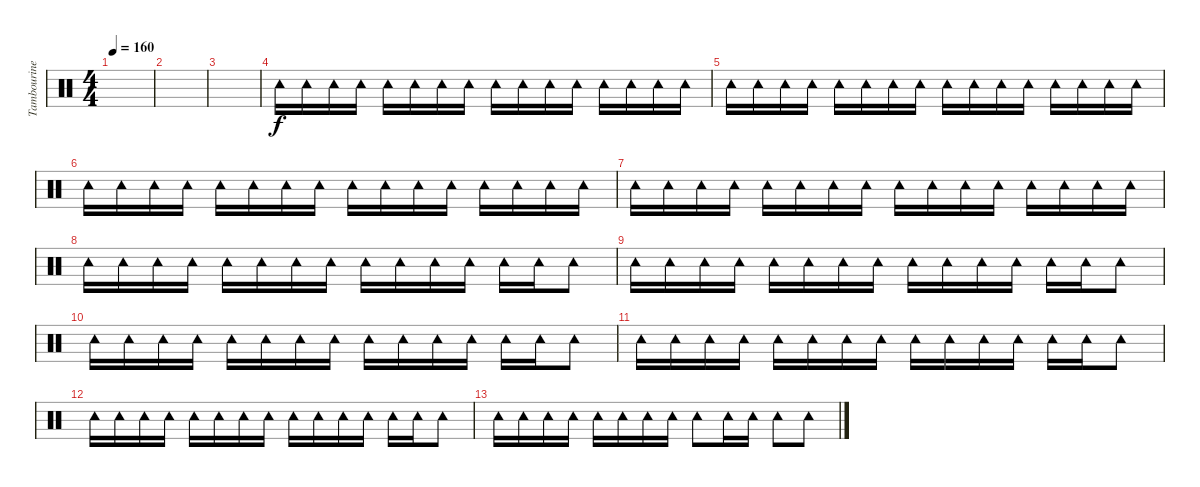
\track ("Tambourine" "Tambourine") {instrument percussion}
\staff {score}
\articulation defaults
\ts (4 4)
\tempo 160
\clef neutral
\ks c
|
|
|
"Tambourine (hit)".16 "Tambourine (hit)".16 "Tambourine (hit)".16 "Tambourine (hit)".16 "Tambourine (hit)".16 "Tambourine (hit)".16 "Tambourine (hit)".16 "Tambourine (hit)".16 "Tambourine (hit)".16 "Tambourine (hit)".16 "Tambourine (hit)".16 "Tambourine (hit)".16 "Tambourine (hit)".16 "Tambourine (hit)".16 "Tambourine (hit)".16 "Tambourine (hit)".16 |
"Tambourine (hit)".16 "Tambourine (hit)".16 "Tambourine (hit)".16 "Tambourine (hit)".16 "Tambourine (hit)".16 "Tambourine (hit)".16 "Tambourine (hit)".16 "Tambourine (hit)".16 "Tambourine (hit)".16 "Tambourine (hit)".16 "Tambourine (hit)".16 "Tambourine (hit)".16 "Tambourine (hit)".16 "Tambourine (hit)".16 "Tambourine (hit)".16 "Tambourine (hit)".16 |
"Tambourine (hit)".16 "Tambourine (hit)".16 "Tambourine (hit)".16 "Tambourine (hit)".16 "Tambourine (hit)".16 "Tambourine (hit)".16 "Tambourine (hit)".16 "Tambourine (hit)".16 "Tambourine (hit)".16 "Tambourine (hit)".16 "Tambourine (hit)".16 "Tambourine (hit)".16 "Tambourine (hit)".16 "Tambourine (hit)".16 "Tambourine (hit)".16 "Tambourine (hit)".16 |
"Tambourine (hit)".16 "Tambourine (hit)".16 "Tambourine (hit)".16 "Tambourine (hit)".16 "Tambourine (hit)".16 "Tambourine (hit)".16 "Tambourine (hit)".16 "Tambourine (hit)".16 "Tambourine (hit)".16 "Tambourine (hit)".16 "Tambourine (hit)".16 "Tambourine (hit)".16 "Tambourine (hit)".16 "Tambourine (hit)".16 "Tambourine (hit)".16 "Tambourine (hit)".16 |
"Tambourine (hit)".16 "Tambourine (hit)".16 "Tambourine (hit)".16 "Tambourine (hit)".16 "Tambourine (hit)".16 "Tambourine (hit)".16 "Tambourine (hit)".16 "Tambourine (hit)".16 "Tambourine (hit)".16 "Tambourine (hit)".16 "Tambourine (hit)".16 "Tambourine (hit)".16 "Tambourine (hit)".16 "Tambourine (hit)".16 "Tambourine (hit)".8 |
"Tambourine (hit)".16 "Tambourine (hit)".16 "Tambourine (hit)".16 "Tambourine (hit)".16 "Tambourine (hit)".16 "Tambourine (hit)".16 "Tambourine (hit)".16 "Tambourine (hit)".16 "Tambourine (hit)".16 "Tambourine (hit)".16 "Tambourine (hit)".16 "Tambourine (hit)".16 "Tambourine (hit)".16 "Tambourine (hit)".16 "Tambourine (hit)".8 |
"Tambourine (hit)".16 "Tambourine (hit)".16 "Tambourine (hit)".16 "Tambourine (hit)".16 "Tambourine (hit)".16 "Tambourine (hit)".16 "Tambourine (hit)".16 "Tambourine (hit)".16 "Tambourine (hit)".16 "Tambourine (hit)".16 "Tambourine (hit)".16 "Tambourine (hit)".16 "Tambourine (hit)".16 "Tambourine (hit)".16 "Tambourine (hit)".8 |
"Tambourine (hit)".16 "Tambourine (hit)".16 "Tambourine (hit)".16 "Tambourine (hit)".16 "Tambourine (hit)".16 "Tambourine (hit)".16 "Tambourine (hit)".16 "Tambourine (hit)".16 "Tambourine (hit)".16 "Tambourine (hit)".16 "Tambourine (hit)".16 "Tambourine (hit)".16 "Tambourine (hit)".16 "Tambourine (hit)".16 "Tambourine (hit)".8 |
"Tambourine (hit)".16 "Tambourine (hit)".16 "Tambourine (hit)".16 "Tambourine (hit)".16 "Tambourine (hit)".16 "Tambourine (hit)".16 "Tambourine (hit)".16 "Tambourine (hit)".16 "Tambourine (hit)".16 "Tambourine (hit)".16 "Tambourine (hit)".16 "Tambourine (hit)".16 "Tambourine (hit)".16 "Tambourine (hit)".16 "Tambourine (hit)".8 |
"Tambourine (hit)".16 "Tambourine (hit)".16 "Tambourine (hit)".16 "Tambourine (hit)".16 "Tambourine (hit)".16 "Tambourine (hit)".16 "Tambourine (hit)".16 "Tambourine (hit)".16 "Tambourine (hit)".8 "Tambourine (hit)".16 "Tambourine (hit)".16 "Tambourine (hit)".8 "Tambourine (hit)".8
